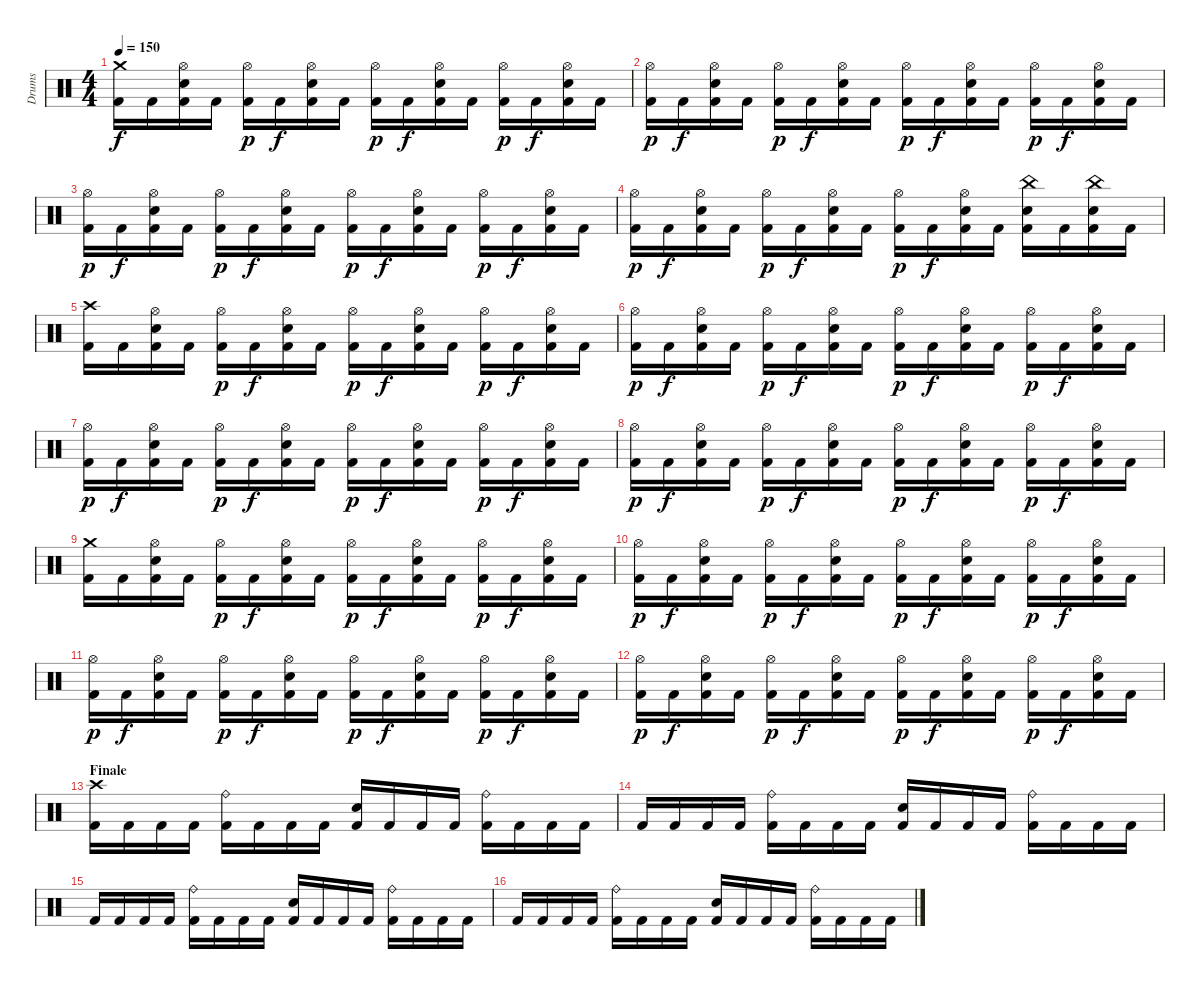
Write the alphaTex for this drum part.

\track ("Drums" "Drums") {instrument percussion}
\staff {score}
\articulation defaults
\ts (4 4)
\tempo 150
\clef neutral
\ks c
("Crash medium (hit)" "Kick (hit) 2").16{dy f} "Kick (hit) 2".16 ("Hi-Hat (open)" "Snare (hit) 2" "Kick (hit) 2").16 "Kick (hit) 2".16 ("Hi-Hat (open)" "Kick (hit) 2").16{dy p} "Kick (hit) 2".16{dy f} ("Hi-Hat (open)" "Snare (hit) 2" "Kick (hit) 2").16 "Kick (hit) 2".16 ("Hi-Hat (open)" "Kick (hit) 2").16{dy p} "Kick (hit) 2".16{dy f} ("Hi-Hat (open)" "Snare (hit) 2" "Kick (hit) 2").16 "Kick (hit) 2".16 ("Hi-Hat (open)" "Kick (hit) 2").16{dy p} "Kick (hit) 2".16{dy f} ("Hi-Hat (open)" "Snare (hit) 2" "Kick (hit) 2").16 "Kick (hit) 2".16 |
("Hi-Hat (open)" "Kick (hit) 2").16{dy p} "Kick (hit) 2".16{dy f} ("Hi-Hat (open)" "Snare (hit) 2" "Kick (hit) 2").16 "Kick (hit) 2".16 ("Hi-Hat (open)" "Kick (hit) 2").16{dy p} "Kick (hit) 2".16{dy f} ("Hi-Hat (open)" "Snare (hit) 2" "Kick (hit) 2").16 "Kick (hit) 2".16 ("Hi-Hat (open)" "Kick (hit) 2").16{dy p} "Kick (hit) 2".16{dy f} ("Hi-Hat (open)" "Snare (hit) 2" "Kick (hit) 2").16 "Kick (hit) 2".16 ("Hi-Hat (open)" "Kick (hit) 2").16{dy p} "Kick (hit) 2".16{dy f} ("Hi-Hat (open)" "Snare (hit) 2" "Kick (hit) 2").16 "Kick (hit) 2".16 |
("Hi-Hat (open)" "Kick (hit) 2").16{dy p} "Kick (hit) 2".16{dy f} ("Hi-Hat (open)" "Snare (hit) 2" "Kick (hit) 2").16 "Kick (hit) 2".16 ("Hi-Hat (open)" "Kick (hit) 2").16{dy p} "Kick (hit) 2".16{dy f} ("Hi-Hat (open)" "Snare (hit) 2" "Kick (hit) 2").16 "Kick (hit) 2".16 ("Hi-Hat (open)" "Kick (hit) 2").16{dy p} "Kick (hit) 2".16{dy f} ("Hi-Hat (open)" "Snare (hit) 2" "Kick (hit) 2").16 "Kick (hit) 2".16 ("Hi-Hat (open)" "Kick (hit) 2").16{dy p} "Kick (hit) 2".16{dy f} ("Hi-Hat (open)" "Snare (hit) 2" "Kick (hit) 2").16 "Kick (hit) 2".16 |
("Hi-Hat (open)" "Kick (hit) 2").16{dy p} "Kick (hit) 2".16{dy f} ("Hi-Hat (open)" "Snare (hit) 2" "Kick (hit) 2").16 "Kick (hit) 2".16 ("Hi-Hat (open)" "Kick (hit) 2").16{dy p} "Kick (hit) 2".16{dy f} ("Hi-Hat (open)" "Snare (hit) 2" "Kick (hit) 2").16 "Kick (hit) 2".16 ("Hi-Hat (open)" "Kick (hit) 2").16{dy p} "Kick (hit) 2".16{dy f} ("Hi-Hat (open)" "Snare (hit) 2" "Kick (hit) 2").16 "Kick (hit) 2".16 ("China (hit)" "Snare (hit) 2" "Kick (hit) 2").16 "Kick (hit) 2".16 ("China (hit)" "Snare (hit) 2" "Kick (hit) 2").16 "Kick (hit) 2".16 |
("Crash high (hit)" "Kick (hit) 2").16 "Kick (hit) 2".16 ("Hi-Hat (open)" "Snare (hit) 2" "Kick (hit) 2").16 "Kick (hit) 2".16 ("Hi-Hat (open)" "Kick (hit) 2").16{dy p} "Kick (hit) 2".16{dy f} ("Hi-Hat (open)" "Snare (hit) 2" "Kick (hit) 2").16 "Kick (hit) 2".16 ("Hi-Hat (open)" "Kick (hit) 2").16{dy p} "Kick (hit) 2".16{dy f} ("Hi-Hat (open)" "Snare (hit) 2" "Kick (hit) 2").16 "Kick (hit) 2".16 ("Hi-Hat (open)" "Kick (hit) 2").16{dy p} "Kick (hit) 2".16{dy f} ("Hi-Hat (open)" "Snare (hit) 2" "Kick (hit) 2").16 "Kick (hit) 2".16 |
("Hi-Hat (open)" "Kick (hit) 2").16{dy p} "Kick (hit) 2".16{dy f} ("Hi-Hat (open)" "Snare (hit) 2" "Kick (hit) 2").16 "Kick (hit) 2".16 ("Hi-Hat (open)" "Kick (hit) 2").16{dy p} "Kick (hit) 2".16{dy f} ("Hi-Hat (open)" "Snare (hit) 2" "Kick (hit) 2").16 "Kick (hit) 2".16 ("Hi-Hat (open)" "Kick (hit) 2").16{dy p} "Kick (hit) 2".16{dy f} ("Hi-Hat (open)" "Snare (hit) 2" "Kick (hit) 2").16 "Kick (hit) 2".16 ("Hi-Hat (open)" "Kick (hit) 2").16{dy p} "Kick (hit) 2".16{dy f} ("Hi-Hat (open)" "Snare (hit) 2" "Kick (hit) 2").16 "Kick (hit) 2".16 |
("Hi-Hat (open)" "Kick (hit) 2").16{dy p} "Kick (hit) 2".16{dy f} ("Hi-Hat (open)" "Snare (hit) 2" "Kick (hit) 2").16 "Kick (hit) 2".16 ("Hi-Hat (open)" "Kick (hit) 2").16{dy p} "Kick (hit) 2".16{dy f} ("Hi-Hat (open)" "Snare (hit) 2" "Kick (hit) 2").16 "Kick (hit) 2".16 ("Hi-Hat (open)" "Kick (hit) 2").16{dy p} "Kick (hit) 2".16{dy f} ("Hi-Hat (open)" "Snare (hit) 2" "Kick (hit) 2").16 "Kick (hit) 2".16 ("Hi-Hat (open)" "Kick (hit) 2").16{dy p} "Kick (hit) 2".16{dy f} ("Hi-Hat (open)" "Snare (hit) 2" "Kick (hit) 2").16 "Kick (hit) 2".16 |
("Hi-Hat (open)" "Kick (hit) 2").16{dy p} "Kick (hit) 2".16{dy f} ("Hi-Hat (open)" "Snare (hit) 2" "Kick (hit) 2").16 "Kick (hit) 2".16 ("Hi-Hat (open)" "Kick (hit) 2").16{dy p} "Kick (hit) 2".16{dy f} ("Hi-Hat (open)" "Snare (hit) 2" "Kick (hit) 2").16 "Kick (hit) 2".16 ("Hi-Hat (open)" "Kick (hit) 2").16{dy p} "Kick (hit) 2".16{dy f} ("Hi-Hat (open)" "Snare (hit) 2" "Kick (hit) 2").16 "Kick (hit) 2".16 ("Hi-Hat (open)" "Kick (hit) 2").16{dy p} "Kick (hit) 2".16{dy f} ("Hi-Hat (open)" "Snare (hit) 2" "Kick (hit) 2").16 "Kick (hit) 2".16 |
("Crash medium (hit)" "Kick (hit) 2").16 "Kick (hit) 2".16 ("Hi-Hat (open)" "Snare (hit) 2" "Kick (hit) 2").16 "Kick (hit) 2".16 ("Hi-Hat (open)" "Kick (hit) 2").16{dy p} "Kick (hit) 2".16{dy f} ("Hi-Hat (open)" "Snare (hit) 2" "Kick (hit) 2").16 "Kick (hit) 2".16 ("Hi-Hat (open)" "Kick (hit) 2").16{dy p} "Kick (hit) 2".16{dy f} ("Hi-Hat (open)" "Snare (hit) 2" "Kick (hit) 2").16 "Kick (hit) 2".16 ("Hi-Hat (open)" "Kick (hit) 2").16{dy p} "Kick (hit) 2".16{dy f} ("Hi-Hat (open)" "Snare (hit) 2" "Kick (hit) 2").16 "Kick (hit) 2".16 |
("Hi-Hat (open)" "Kick (hit) 2").16{dy p} "Kick (hit) 2".16{dy f} ("Hi-Hat (open)" "Snare (hit) 2" "Kick (hit) 2").16 "Kick (hit) 2".16 ("Hi-Hat (open)" "Kick (hit) 2").16{dy p} "Kick (hit) 2".16{dy f} ("Hi-Hat (open)" "Snare (hit) 2" "Kick (hit) 2").16 "Kick (hit) 2".16 ("Hi-Hat (open)" "Kick (hit) 2").16{dy p} "Kick (hit) 2".16{dy f} ("Hi-Hat (open)" "Snare (hit) 2" "Kick (hit) 2").16 "Kick (hit) 2".16 ("Hi-Hat (open)" "Kick (hit) 2").16{dy p} "Kick (hit) 2".16{dy f} ("Hi-Hat (open)" "Snare (hit) 2" "Kick (hit) 2").16 "Kick (hit) 2".16 |
("Hi-Hat (open)" "Kick (hit) 2").16{dy p} "Kick (hit) 2".16{dy f} ("Hi-Hat (open)" "Snare (hit) 2" "Kick (hit) 2").16 "Kick (hit) 2".16 ("Hi-Hat (open)" "Kick (hit) 2").16{dy p} "Kick (hit) 2".16{dy f} ("Hi-Hat (open)" "Snare (hit) 2" "Kick (hit) 2").16 "Kick (hit) 2".16 ("Hi-Hat (open)" "Kick (hit) 2").16{dy p} "Kick (hit) 2".16{dy f} ("Hi-Hat (open)" "Snare (hit) 2" "Kick (hit) 2").16 "Kick (hit) 2".16 ("Hi-Hat (open)" "Kick (hit) 2").16{dy p} "Kick (hit) 2".16{dy f} ("Hi-Hat (open)" "Snare (hit) 2" "Kick (hit) 2").16 "Kick (hit) 2".16 |
("Hi-Hat (open)" "Kick (hit) 2").16{dy p} "Kick (hit) 2".16{dy f} ("Hi-Hat (open)" "Snare (hit) 2" "Kick (hit) 2").16 "Kick (hit) 2".16 ("Hi-Hat (open)" "Kick (hit) 2").16{dy p} "Kick (hit) 2".16{dy f} ("Hi-Hat (open)" "Snare (hit) 2" "Kick (hit) 2").16 "Kick (hit) 2".16 ("Hi-Hat (open)" "Kick (hit) 2").16{dy p} "Kick (hit) 2".16{dy f} ("Hi-Hat (open)" "Snare (hit) 2" "Kick (hit) 2").16 "Kick (hit) 2".16 ("Hi-Hat (open)" "Kick (hit) 2").16{dy p} "Kick (hit) 2".16{dy f} ("Hi-Hat (open)" "Snare (hit) 2" "Kick (hit) 2").16 "Kick (hit) 2".16 |
\section ("" "Finale")
("Crash high (hit)" "Kick (hit) 2").16 "Kick (hit) 2".16 "Kick (hit) 2".16 "Kick (hit) 2".16 ("Ride (bell)" "Kick (hit) 2").16 "Kick (hit) 2".16 "Kick (hit) 2".16 "Kick (hit) 2".16 ("Snare (hit) 2" "Kick (hit) 2").16 "Kick (hit) 2".16 "Kick (hit) 2".16 "Kick (hit) 2".16 ("Ride (bell)" "Kick (hit) 2").16 "Kick (hit) 2".16 "Kick (hit) 2".16 "Kick (hit) 2".16 |
"Kick (hit) 2".16 "Kick (hit) 2".16 "Kick (hit) 2".16 "Kick (hit) 2".16 ("Ride (bell)" "Kick (hit) 2").16 "Kick (hit) 2".16 "Kick (hit) 2".16 "Kick (hit) 2".16 ("Snare (hit) 2" "Kick (hit) 2").16 "Kick (hit) 2".16 "Kick (hit) 2".16 "Kick (hit) 2".16 ("Ride (bell)" "Kick (hit) 2").16 "Kick (hit) 2".16 "Kick (hit) 2".16 "Kick (hit) 2".16 |
"Kick (hit) 2".16 "Kick (hit) 2".16 "Kick (hit) 2".16 "Kick (hit) 2".16 ("Ride (bell)" "Kick (hit) 2").16 "Kick (hit) 2".16 "Kick (hit) 2".16 "Kick (hit) 2".16 ("Snare (hit) 2" "Kick (hit) 2").16 "Kick (hit) 2".16 "Kick (hit) 2".16 "Kick (hit) 2".16 ("Ride (bell)" "Kick (hit) 2").16 "Kick (hit) 2".16 "Kick (hit) 2".16 "Kick (hit) 2".16 |
"Kick (hit) 2".16 "Kick (hit) 2".16 "Kick (hit) 2".16 "Kick (hit) 2".16 ("Ride (bell)" "Kick (hit) 2").16 "Kick (hit) 2".16 "Kick (hit) 2".16 "Kick (hit) 2".16 ("Snare (hit) 2" "Kick (hit) 2").16 "Kick (hit) 2".16 "Kick (hit) 2".16 "Kick (hit) 2".16 ("Ride (bell)" "Kick (hit) 2").16 "Kick (hit) 2".16 "Kick (hit) 2".16 "Kick (hit) 2".16
